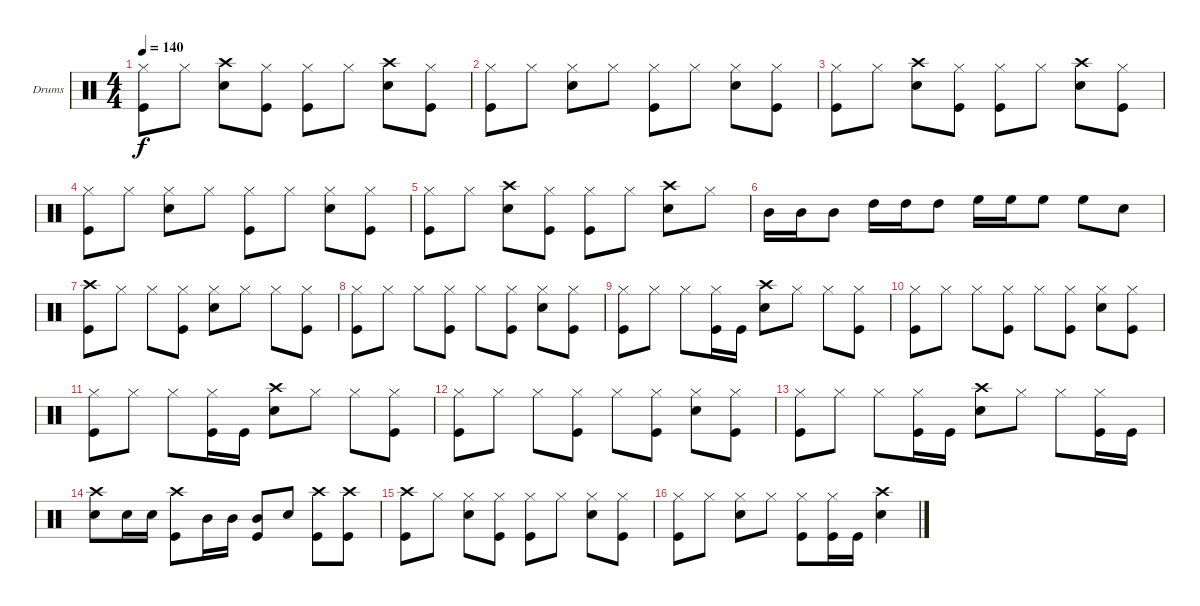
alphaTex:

\defaultSystemsLayout 4
\bracketExtendMode groupsimilarinstruments
\firstSystemTrackNameOrientation horizontal
\otherSystemsTrackNameOrientation horizontal
\track ("Drums" "Drums") {instrument percussion}
\staff {score}
\articulation defaults
\ts (4 4)
\tempo 140
\clef neutral
\ks c
("Kick (hit)" "Hi-Hat (closed)").8{dy f} "Hi-Hat (closed)".8 ("Snare (hit) 2" "Crash high (hit)").8 ("Kick (hit)" "Hi-Hat (closed)").8 ("Kick (hit)" "Hi-Hat (closed)").8 "Hi-Hat (closed)".8 ("Crash high (hit)" "Snare (hit) 2").8 ("Kick (hit)" "Hi-Hat (closed)").8 |
("Hi-Hat (closed)" "Kick (hit)").8 "Hi-Hat (closed)".8 ("Snare (hit) 2" "Hi-Hat (closed)").8 "Hi-Hat (closed)".8 ("Hi-Hat (closed)" "Kick (hit)").8 "Hi-Hat (closed)".8 ("Snare (hit) 2" "Hi-Hat (closed)").8 ("Hi-Hat (closed)" "Kick (hit)").8 |
("Kick (hit)" "Hi-Hat (closed)").8 "Hi-Hat (closed)".8 ("Snare (hit) 2" "Crash high (hit)").8 ("Kick (hit)" "Hi-Hat (closed)").8 ("Kick (hit)" "Hi-Hat (closed)").8 "Hi-Hat (closed)".8 ("Crash high (hit)" "Snare (hit) 2").8 ("Kick (hit)" "Hi-Hat (closed)").8 |
("Hi-Hat (closed)" "Kick (hit)").8 "Hi-Hat (closed)".8 ("Snare (hit) 2" "Hi-Hat (closed)").8 "Hi-Hat (closed)".8 ("Hi-Hat (closed)" "Kick (hit)").8 "Hi-Hat (closed)".8 ("Snare (hit) 2" "Hi-Hat (closed)").8 ("Hi-Hat (closed)" "Kick (hit)").8 |
("Kick (hit)" "Hi-Hat (closed)").8 "Hi-Hat (closed)".8 ("Snare (hit) 2" "Crash high (hit)").8 ("Kick (hit)" "Hi-Hat (closed)").8 ("Kick (hit)" "Hi-Hat (closed)").8 "Hi-Hat (closed)".8 ("Crash high (hit)" "Snare (hit) 2").8 "Hi-Hat (closed)".8 |
"Mid Tom (hit)".16 "Mid Tom (hit)".16 "Mid Tom (hit)".8 "High Tom (hit)".16 "High Tom (hit)".16 "High Tom (hit)".8 "High Floor Tom (hit)".16 "High Floor Tom (hit)".16 "High Floor Tom (hit)".8 "High Floor Tom (hit)".8 "Snare (hit) 2".8 |
("Kick (hit)" "Crash high (hit)").8 "Hi-Hat (closed)".8 "Hi-Hat (closed)".8 ("Kick (hit)" "Hi-Hat (closed)").8 ("Hi-Hat (closed)" "Snare (hit) 2").8 "Hi-Hat (closed)".8 "Hi-Hat (closed)".8 ("Kick (hit)" "Hi-Hat (closed)").8 |
("Kick (hit)" "Hi-Hat (closed)").8 "Hi-Hat (closed)".8 "Hi-Hat (closed)".8 ("Kick (hit)" "Hi-Hat (closed)").8 "Hi-Hat (closed)".8 ("Kick (hit)" "Hi-Hat (closed)").8 ("Snare (hit) 2" "Hi-Hat (closed)").8 ("Kick (hit)" "Hi-Hat (closed)").8 |
("Hi-Hat (closed)" "Kick (hit)").8 "Hi-Hat (closed)".8 "Hi-Hat (closed)".8 ("Hi-Hat (closed)" "Kick (hit)").16 "Kick (hit)".16 ("Crash high (hit)" "Snare (hit) 2").8 "Hi-Hat (closed)".8 "Hi-Hat (closed)".8 ("Hi-Hat (closed)" "Kick (hit)").8 |
("Hi-Hat (closed)" "Kick (hit)").8 "Hi-Hat (closed)".8 "Hi-Hat (closed)".8 ("Kick (hit)" "Hi-Hat (closed)").8 "Hi-Hat (closed)".8 ("Kick (hit)" "Hi-Hat (closed)").8 ("Hi-Hat (closed)" "Snare (hit) 2").8 ("Kick (hit)" "Hi-Hat (closed)").8 |
("Hi-Hat (closed)" "Kick (hit)").8 "Hi-Hat (closed)".8 "Hi-Hat (closed)".8 ("Hi-Hat (closed)" "Kick (hit)").16 "Kick (hit)".16 ("Crash high (hit)" "Snare (hit) 2").8 "Hi-Hat (closed)".8 "Hi-Hat (closed)".8 ("Hi-Hat (closed)" "Kick (hit)").8 |
("Hi-Hat (closed)" "Kick (hit)").8 "Hi-Hat (closed)".8 "Hi-Hat (closed)".8 ("Kick (hit)" "Hi-Hat (closed)").8 "Hi-Hat (closed)".8 ("Kick (hit)" "Hi-Hat (closed)").8 ("Hi-Hat (closed)" "Snare (hit) 2").8 ("Kick (hit)" "Hi-Hat (closed)").8 |
("Hi-Hat (closed)" "Kick (hit)").8 "Hi-Hat (closed)".8 "Hi-Hat (closed)".8 ("Hi-Hat (closed)" "Kick (hit)").16 "Kick (hit)".16 ("Crash high (hit)" "Snare (hit) 2").8 "Hi-Hat (closed)".8 "Hi-Hat (closed)".8 ("Hi-Hat (closed)" "Kick (hit)").16 "Kick (hit)".16 |
("Snare (hit) 2" "Crash high (hit)").8 "Snare (hit) 2".16 "Snare (hit) 2".16 ("Kick (hit)" "Crash high (hit)").8 "Mid Tom (hit)".16 "Mid Tom (hit)".16 ("Kick (hit)" "Mid Tom (hit)").8 "Snare (hit) 2".8 ("Kick (hit)" "Crash high (hit)").8 ("Kick (hit)" "Crash high (hit)").8 |
("Crash high (hit)" "Kick (hit)").8 "Hi-Hat (closed)".8 ("Snare (hit) 2" "Hi-Hat (closed)").8 ("Hi-Hat (closed)" "Kick (hit)").8 ("Hi-Hat (closed)" "Kick (hit)").8 "Hi-Hat (closed)".8 ("Snare (hit) 2" "Hi-Hat (closed)").8 ("Hi-Hat (closed)" "Kick (hit)").8 |
("Hi-Hat (closed)" "Kick (hit)").8 "Hi-Hat (closed)".8 ("Snare (hit) 2" "Hi-Hat (closed)").8 "Hi-Hat (closed)".8 ("Hi-Hat (closed)" "Kick (hit)").8 ("Hi-Hat (closed)" "Kick (hit)").16 "Kick (hit)".16 ("Crash high (hit)" "Snare (hit) 2").4
